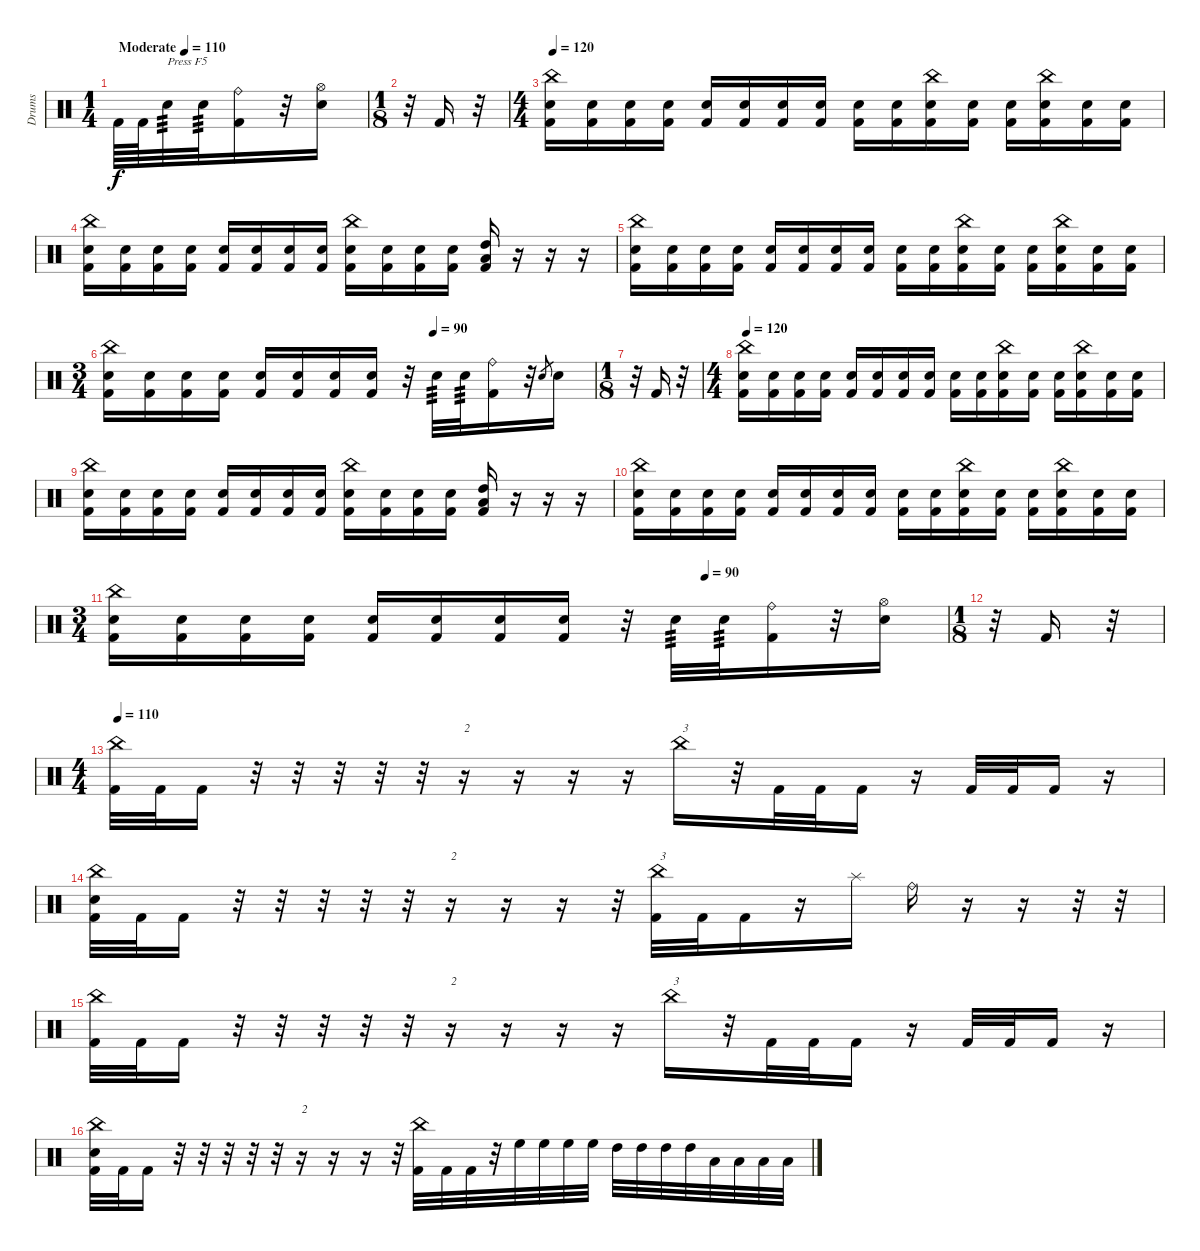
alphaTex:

\track ("Drums" "Drums") {instrument percussion}
\staff {score}
\articulation defaults
\ts (1 4)
\tempo (110 "Moderate")
\tempo 90
\tempo (110 "Moderate")
\clef neutral
\ks c "Kick (hit) 2".64{dy f} "Kick (hit) 2".64 "Electric Snare (hit)".32{txt "Press F5" tp 3} "Electric Snare (hit)".32{tp 3}
("Ride (bell)" "Kick (hit) 2").16 r.32 ("Hi-Hat (open)" "Electric Snare (hit)").16 |
\ts (1 8)
r.32 "Kick (hit) 2".16 r.32 |
\ts (4 4)
\tempo 120
("China (hit)" "Electric Snare (hit)" "Kick (hit) 2").16 ("Electric Snare (hit)" "Kick (hit) 2").16 ("Electric Snare (hit)" "Kick (hit) 2").16 ("Electric Snare (hit)" "Kick (hit) 2").16 ("Electric Snare (hit)" "Kick (hit) 2").16 ("Electric Snare (hit)" "Kick (hit) 2").16 ("Electric Snare (hit)" "Kick (hit) 2").16 ("Electric Snare (hit)" "Kick (hit) 2").16 ("Electric Snare (hit)" "Kick (hit) 2").16 ("Electric Snare (hit)" "Kick (hit) 2").16 ("China (hit)" "Electric Snare (hit)" "Kick (hit) 2").16 ("Electric Snare (hit)" "Kick (hit) 2").16 ("Electric Snare (hit)" "Kick (hit) 2").16 ("China (hit)" "Electric Snare (hit)" "Kick (hit) 2").16 ("Electric Snare (hit)" "Kick (hit) 2").16 ("Electric Snare (hit)" "Kick (hit) 2").16 |
("China (hit)" "Electric Snare (hit)" "Kick (hit) 2").16 ("Electric Snare (hit)" "Kick (hit) 2").16 ("Electric Snare (hit)" "Kick (hit) 2").16 ("Electric Snare (hit)" "Kick (hit) 2").16 ("Electric Snare (hit)" "Kick (hit) 2").16 ("Electric Snare (hit)" "Kick (hit) 2").16 ("Electric Snare (hit)" "Kick (hit) 2").16 ("Electric Snare (hit)" "Kick (hit) 2").16 ("China (hit)" "Electric Snare (hit)" "Kick (hit) 2").16 ("Electric Snare (hit)" "Kick (hit) 2").16 ("Electric Snare (hit)" "Kick (hit) 2").16 ("Electric Snare (hit)" "Kick (hit) 2").16 ("High Tom (hit)" "Low Tom (hit)" "Kick (hit) 2").16 r.16 r.16 r.16 |
("China (hit)" "Electric Snare (hit)" "Kick (hit) 2").16 ("Electric Snare (hit)" "Kick (hit) 2").16 ("Electric Snare (hit)" "Kick (hit) 2").16 ("Electric Snare (hit)" "Kick (hit) 2").16 ("Electric Snare (hit)" "Kick (hit) 2").16 ("Electric Snare (hit)" "Kick (hit) 2").16 ("Electric Snare (hit)" "Kick (hit) 2").16 ("Electric Snare (hit)" "Kick (hit) 2").16 ("Electric Snare (hit)" "Kick (hit) 2").16 ("Electric Snare (hit)" "Kick (hit) 2").16 ("China (hit)" "Electric Snare (hit)" "Kick (hit) 2").16 ("Electric Snare (hit)" "Kick (hit) 2").16 ("Electric Snare (hit)" "Kick (hit) 2").16 ("China (hit)" "Electric Snare (hit)" "Kick (hit) 2").16 ("Electric Snare (hit)" "Kick (hit) 2").16 ("Electric Snare (hit)" "Kick (hit) 2").16 |
\ts (3 4)
\tempo (90 0.6666666666666666)
("China (hit)" "Electric Snare (hit)" "Kick (hit) 2").16 ("Electric Snare (hit)" "Kick (hit) 2").16 ("Electric Snare (hit)" "Kick (hit) 2").16 ("Electric Snare (hit)" "Kick (hit) 2").16 ("Electric Snare (hit)" "Kick (hit) 2").16 ("Electric Snare (hit)" "Kick (hit) 2").16 ("Electric Snare (hit)" "Kick (hit) 2").16 ("Electric Snare (hit)" "Kick (hit) 2").16 r.32 "Electric Snare (hit)".32{tp 3} "Electric Snare (hit)".32{tp 3} ("Ride (bell)" "Kick (hit) 2").16 r.32 "Electric Snare (hit)".8{gr} "Electric Snare (hit)".16 |
\ts (1 8)
r.32 "Kick (hit) 2".16 r.32 |
\ts (4 4)
\tempo 120
("China (hit)" "Electric Snare (hit)" "Kick (hit) 2").16 ("Electric Snare (hit)" "Kick (hit) 2").16 ("Electric Snare (hit)" "Kick (hit) 2").16 ("Electric Snare (hit)" "Kick (hit) 2").16 ("Electric Snare (hit)" "Kick (hit) 2").16 ("Electric Snare (hit)" "Kick (hit) 2").16 ("Electric Snare (hit)" "Kick (hit) 2").16 ("Electric Snare (hit)" "Kick (hit) 2").16 ("Electric Snare (hit)" "Kick (hit) 2").16 ("Electric Snare (hit)" "Kick (hit) 2").16 ("China (hit)" "Electric Snare (hit)" "Kick (hit) 2").16 ("Electric Snare (hit)" "Kick (hit) 2").16 ("Electric Snare (hit)" "Kick (hit) 2").16 ("China (hit)" "Electric Snare (hit)" "Kick (hit) 2").16 ("Electric Snare (hit)" "Kick (hit) 2").16 ("Electric Snare (hit)" "Kick (hit) 2").16 |
("China (hit)" "Electric Snare (hit)" "Kick (hit) 2").16 ("Electric Snare (hit)" "Kick (hit) 2").16 ("Electric Snare (hit)" "Kick (hit) 2").16 ("Electric Snare (hit)" "Kick (hit) 2").16 ("Electric Snare (hit)" "Kick (hit) 2").16 ("Electric Snare (hit)" "Kick (hit) 2").16 ("Electric Snare (hit)" "Kick (hit) 2").16 ("Electric Snare (hit)" "Kick (hit) 2").16 ("China (hit)" "Electric Snare (hit)" "Kick (hit) 2").16 ("Electric Snare (hit)" "Kick (hit) 2").16 ("Electric Snare (hit)" "Kick (hit) 2").16 ("Electric Snare (hit)" "Kick (hit) 2").16 ("High Tom (hit)" "Low Tom (hit)" "Kick (hit) 2").16 r.16 r.16 r.16 |
("China (hit)" "Electric Snare (hit)" "Kick (hit) 2").16 ("Electric Snare (hit)" "Kick (hit) 2").16 ("Electric Snare (hit)" "Kick (hit) 2").16 ("Electric Snare (hit)" "Kick (hit) 2").16 ("Electric Snare (hit)" "Kick (hit) 2").16 ("Electric Snare (hit)" "Kick (hit) 2").16 ("Electric Snare (hit)" "Kick (hit) 2").16 ("Electric Snare (hit)" "Kick (hit) 2").16 ("Electric Snare (hit)" "Kick (hit) 2").16 ("Electric Snare (hit)" "Kick (hit) 2").16 ("China (hit)" "Electric Snare (hit)" "Kick (hit) 2").16 ("Electric Snare (hit)" "Kick (hit) 2").16 ("Electric Snare (hit)" "Kick (hit) 2").16 ("China (hit)" "Electric Snare (hit)" "Kick (hit) 2").16 ("Electric Snare (hit)" "Kick (hit) 2").16 ("Electric Snare (hit)" "Kick (hit) 2").16 |
\ts (3 4)
\tempo (90 0.7083333333333334)
("China (hit)" "Electric Snare (hit)" "Kick (hit) 2").16 ("Electric Snare (hit)" "Kick (hit) 2").16 ("Electric Snare (hit)" "Kick (hit) 2").16 ("Electric Snare (hit)" "Kick (hit) 2").16 ("Electric Snare (hit)" "Kick (hit) 2").16 ("Electric Snare (hit)" "Kick (hit) 2").16 ("Electric Snare (hit)" "Kick (hit) 2").16 ("Electric Snare (hit)" "Kick (hit) 2").16 r.32 "Electric Snare (hit)".32{tp 3} "Electric Snare (hit)".32{tp 3} ("Ride (bell)" "Kick (hit) 2").16 r.32 ("Hi-Hat (open)" "Electric Snare (hit)").16 |
\ts (1 8)
r.32 "Kick (hit) 2".16 r.32 |
\ts (4 4)
\tempo 110
("China (hit)" "Kick (hit) 2").32 "Kick (hit) 2".32 "Kick (hit) 2".16 r.32{volume 0} r.32 r.32 r.32 r.32 r.16{txt "2"} r.16 r.16 r.16 "China (hit)".16{txt "3" volume 13} r.32 "Kick (hit) 2".32 "Kick (hit) 2".32 "Kick (hit) 2".16 r.16 "Kick (hit) 2".32 "Kick (hit) 2".32 "Kick (hit) 2".16 r.16 |
("China (hit)" "Electric Snare (hit)" "Kick (hit) 2").32 "Kick (hit) 2".32 "Kick (hit) 2".16 r.32 r.32 r.32 r.32 r.32 r.16{txt "2"} r.16 r.16 r.32 ("China (hit)" "Kick (hit) 2").32{txt "3"} "Kick (hit) 2".32 "Kick (hit) 2".16 r.16 "Splash (hit)".16 "Ride (bell)".16 r.16 r.16 r.32 r.32 |
("China (hit)" "Kick (hit) 2").32 "Kick (hit) 2".32 "Kick (hit) 2".16 r.32{volume 0} r.32 r.32 r.32 r.32 r.16{txt "2"} r.16 r.16 r.16 "China (hit)".16{txt "3" volume 13} r.32 "Kick (hit) 2".32 "Kick (hit) 2".32 "Kick (hit) 2".16 r.16 "Kick (hit) 2".32 "Kick (hit) 2".32 "Kick (hit) 2".16 r.16 |
("China (hit)" "Electric Snare (hit)" "Kick (hit) 2").32 "Kick (hit) 2".32 "Kick (hit) 2".16 r.32 r.32 r.32 r.32 r.32 r.16{txt "2"} r.16 r.16 r.32 ("China (hit)" "Kick (hit) 2").32 "Kick (hit) 2".32 "Kick (hit) 2".32 r.32 "High Floor Tom (hit)".32 "High Floor Tom (hit)".32 "High Floor Tom (hit)".32 "High Floor Tom (hit)".32 "High Tom (hit)".32 "High Tom (hit)".32 "High Tom (hit)".32 "High Tom (hit)".32 "Low Tom (hit)".32 "Low Tom (hit)".32 "Low Tom (hit)".32 "Low Tom (hit)".32
